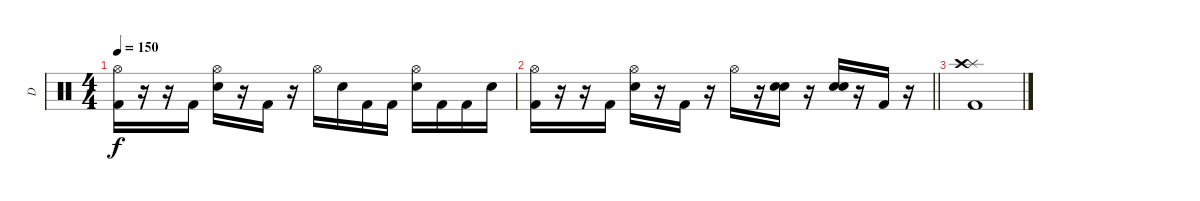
\track ("D" "D") {instrument percussion}
\staff {score}
\articulation defaults
\ts (4 4)
\tempo 150
\clef neutral
\ks c
("Hi-Hat (open)" "Kick (hit) 2").16{dy f} r.16 r.16 "Kick (hit) 2".16 ("Hi-Hat (open)" "Electric Snare (hit)").16 r.16 "Kick (hit) 2".16 r.16 "Hi-Hat (open)".16 "Electric Snare (hit)".16 "Kick (hit) 2".16 "Kick (hit) 2".16 ("Hi-Hat (open)" "Electric Snare (hit)").16 "Kick (hit) 2".16 "Kick (hit) 2".16 "Electric Snare (hit)".16 |
\barLineRight lightlight
("Hi-Hat (open)" "Kick (hit) 2").16 r.16 r.16 "Kick (hit) 2".16 ("Hi-Hat (open)" "Electric Snare (hit)").16 r.16 "Kick (hit) 2".16 r.16 "Hi-Hat (open)".16 r.16 ("Electric Snare (hit)" "Electric Snare (hit)").16 r.16 ("Electric Snare (hit)" "Electric Snare (hit)").16 r.16 "Kick (hit) 2".16 r.16 |
("Splash (hit)" "Crash high (hit)" "Kick (hit) 2").1
